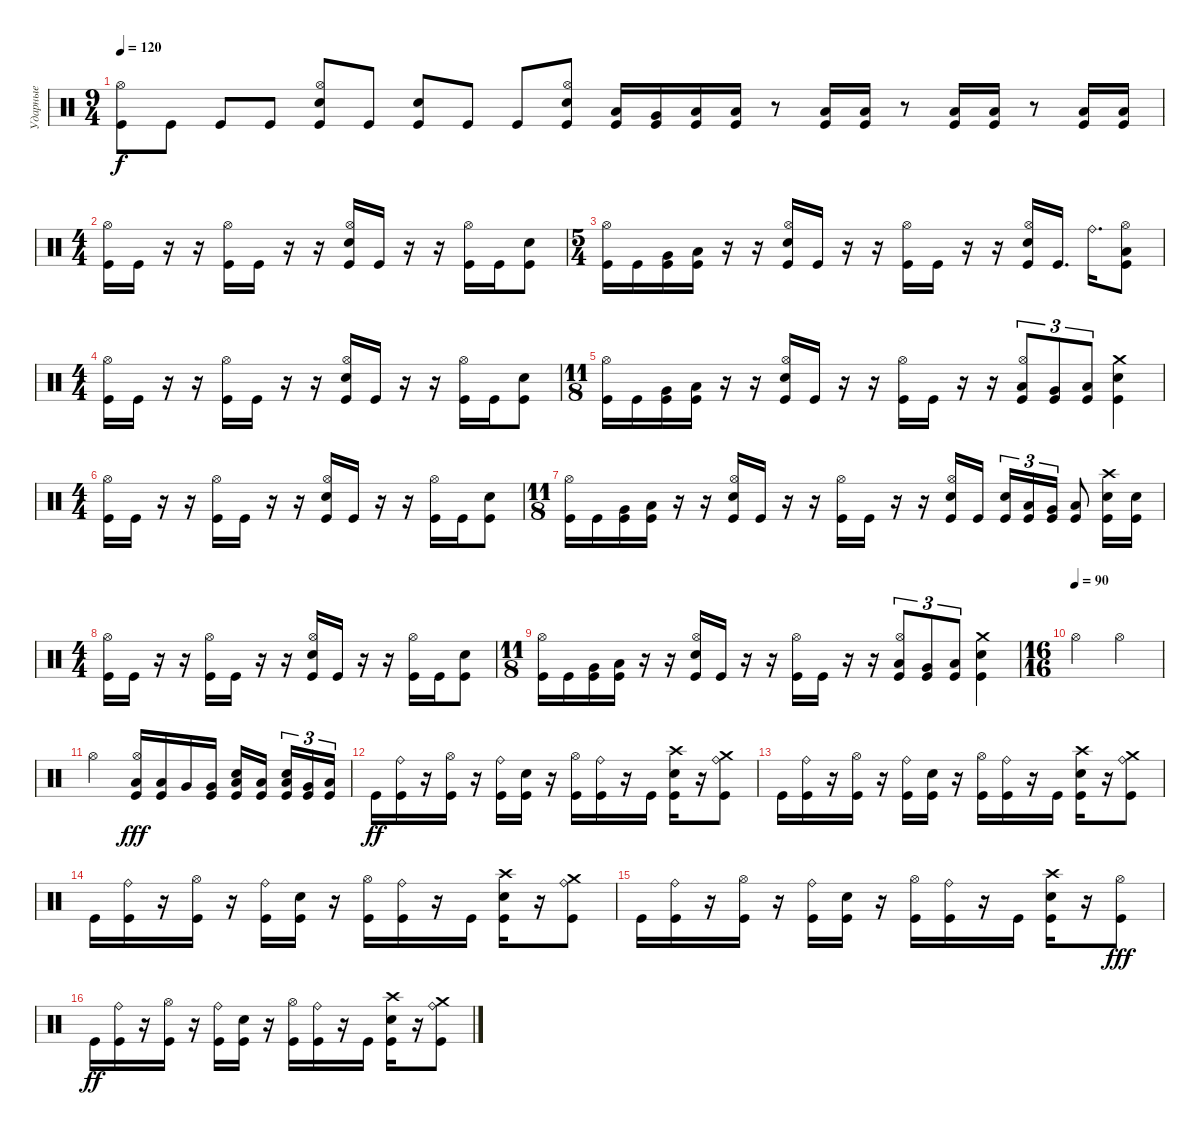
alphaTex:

\track ("Ударные" "Ударные") {instrument percussion}
\staff {score}
\articulation defaults
\ts (9 4)
\tempo 120
\clef neutral
\ks c
("Kick (hit)" "Hi-Hat (open)").8{dy f} "Kick (hit)".8 "Kick (hit)".8 "Kick (hit)".8 ("Kick (hit)" "Hi-Hat (open)" "Snare (hit) 2").8 "Kick (hit)".8 ("Kick (hit)" "Snare (hit) 2").8 "Kick (hit)".8 "Kick (hit)".8 ("Kick (hit)" "Hi-Hat (open)" "Snare (hit) 2").8 ("Kick (hit)" "Low Tom (hit)").16 ("Kick (hit)" "Very Low Tom (hit)").16 ("Kick (hit)" "Low Floor Tom (hit)").16 ("Kick (hit)" "Low Floor Tom (hit)").16 r.8 ("Kick (hit)" "Low Floor Tom (hit)").16 ("Kick (hit)" "Low Floor Tom (hit)").16 r.8 ("Kick (hit)" "Low Floor Tom (hit)").16 ("Kick (hit)" "Low Floor Tom (hit)").16 r.8 ("Kick (hit)" "Low Floor Tom (hit)").16 ("Kick (hit)" "Low Floor Tom (hit)").16 |
\ts (4 4)
("Kick (hit)" "Hi-Hat (open)").16 "Kick (hit)".16 r.16 r.16 ("Kick (hit)" "Hi-Hat (open)").16 "Kick (hit)".16 r.16 r.16 ("Kick (hit)" "Snare (hit) 2" "Hi-Hat (open)").16 "Kick (hit)".16 r.16 r.16 ("Kick (hit)" "Hi-Hat (open)").16 "Kick (hit)".16 ("Kick (hit)" "Snare (hit) 2").8 |
\ts (5 4)
("Kick (hit)" "Hi-Hat (open)").16 "Kick (hit)".16 ("Kick (hit)" "Very Low Tom (hit)").16 ("Kick (hit)" "Low Floor Tom (hit)").16 r.16 r.16 ("Kick (hit)" "Snare (hit) 2" "Hi-Hat (open)").16 "Kick (hit)".16 r.16 r.16 ("Kick (hit)" "Hi-Hat (open)").16 "Kick (hit)".16 r.16 r.16 ("Kick (hit)" "Snare (hit) 2" "Hi-Hat (open)").16 "Kick (hit)".16{d} "Ride (bell)".16{d} ("Kick (hit)" "Low Floor Tom (hit)" "Hi-Hat (open)").8 |
\ts (4 4)
("Kick (hit)" "Hi-Hat (open)").16 "Kick (hit)".16 r.16 r.16 ("Kick (hit)" "Hi-Hat (open)").16 "Kick (hit)".16 r.16 r.16 ("Kick (hit)" "Snare (hit) 2" "Hi-Hat (open)").16 "Kick (hit)".16 r.16 r.16 ("Kick (hit)" "Hi-Hat (open)").16 "Kick (hit)".16 ("Kick (hit)" "Snare (hit) 2").8 |
\ts (11 8)
("Kick (hit)" "Hi-Hat (open)").16 "Kick (hit)".16 ("Kick (hit)" "Very Low Tom (hit)").16 ("Kick (hit)" "Low Floor Tom (hit)").16 r.16 r.16 ("Kick (hit)" "Snare (hit) 2" "Hi-Hat (open)").16 "Kick (hit)".16 r.16 r.16 ("Kick (hit)" "Hi-Hat (open)").16 "Kick (hit)".16 r.16 r.16 ("Kick (hit)" "Low Tom (hit)" "Hi-Hat (open)").8{tu (3 2)} ("Kick (hit)" "Very Low Tom (hit)").8{tu (3 2)} ("Kick (hit)" "Low Floor Tom (hit)").8{tu (3 2)} ("Kick (hit)" "Crash medium (hit)" "Snare (hit) 2").4 |
\ts (4 4)
("Kick (hit)" "Hi-Hat (open)").16 "Kick (hit)".16 r.16 r.16 ("Kick (hit)" "Hi-Hat (open)").16 "Kick (hit)".16 r.16 r.16 ("Kick (hit)" "Snare (hit) 2" "Hi-Hat (open)").16 "Kick (hit)".16 r.16 r.16 ("Kick (hit)" "Hi-Hat (open)").16 "Kick (hit)".16 ("Kick (hit)" "Snare (hit) 2").8 |
\ts (11 8)
("Kick (hit)" "Hi-Hat (open)").16 "Kick (hit)".16 ("Kick (hit)" "Very Low Tom (hit)").16 ("Kick (hit)" "Low Floor Tom (hit)").16 r.16 r.16 ("Kick (hit)" "Snare (hit) 2" "Hi-Hat (open)").16 "Kick (hit)".16 r.16 r.16 ("Kick (hit)" "Hi-Hat (open)").16 "Kick (hit)".16 r.16 r.16 ("Kick (hit)" "Snare (hit) 2" "Hi-Hat (open)").16 "Kick (hit)".16 ("Kick (hit)" "Snare (hit) 2").16{tu (3 2)} ("Kick (hit)" "Low Tom (hit)").16{tu (3 2)} ("Kick (hit)" "Very Low Tom (hit)").16{tu (3 2)} ("Kick (hit)" "Low Floor Tom (hit)").8 ("Kick (hit)" "Crash high (hit)" "Snare (hit) 2").16 ("Kick (hit)" "Snare (hit) 2").16 |
\ts (4 4)
("Kick (hit)" "Hi-Hat (open)").16 "Kick (hit)".16 r.16 r.16 ("Kick (hit)" "Hi-Hat (open)").16 "Kick (hit)".16 r.16 r.16 ("Kick (hit)" "Snare (hit) 2" "Hi-Hat (open)").16 "Kick (hit)".16 r.16 r.16 ("Kick (hit)" "Hi-Hat (open)").16 "Kick (hit)".16 ("Kick (hit)" "Snare (hit) 2").8 |
\ts (11 8)
("Kick (hit)" "Hi-Hat (open)").16 "Kick (hit)".16 ("Kick (hit)" "Very Low Tom (hit)").16 ("Kick (hit)" "Low Floor Tom (hit)").16 r.16 r.16 ("Kick (hit)" "Snare (hit) 2" "Hi-Hat (open)").16 "Kick (hit)".16 r.16 r.16 ("Kick (hit)" "Hi-Hat (open)").16 "Kick (hit)".16 r.16 r.16 ("Kick (hit)" "Low Tom (hit)" "Hi-Hat (open)").8{tu (3 2)} ("Kick (hit)" "Very Low Tom (hit)").8{tu (3 2)} ("Kick (hit)" "Low Floor Tom (hit)").8{tu (3 2)} ("Kick (hit)" "Crash medium (hit)" "Snare (hit) 2").4 |
\ts (16 16)
\tempo (90)
"Hi-Hat (open)".2 "Hi-Hat (open)".2 |
"Hi-Hat (open)".2 ("Hi-Hat (open)" "Low Tom (hit)" "Kick (hit)").16{dy fff} ("Low Tom (hit)" "Kick (hit)").16 "Very Low Tom (hit)".16 ("Very Low Tom (hit)" "Kick (hit)").16 ("Low Floor Tom (hit)" "Snare (hit) 2" "Kick (hit)").16 ("Low Floor Tom (hit)" "Kick (hit)").16 ("Low Tom (hit)" "Snare (hit) 2" "Kick (hit)").16{tu (3 2)} ("Very Low Tom (hit)" "Kick (hit)").16{tu (3 2)} ("Low Floor Tom (hit)" "Kick (hit)").16{tu (3 2)} |
"Kick (hit)".16{dy ff} ("Ride (bell)" "Kick (hit)").16 r.16 ("Hi-Hat (open)" "Kick (hit)").16 r.16 ("Ride (bell)" "Kick (hit)").16 ("Snare (hit) 2" "Kick (hit)").16 r.16 ("Hi-Hat (open)" "Kick (hit)").16 ("Ride (bell)" "Kick (hit)").16 r.16 "Kick (hit)".16 ("Crash high (hit)" "Snare (hit) 2" "Kick (hit)").16 r.16 ("Crash medium (hit)" "Ride (bell)" "Kick (hit)").8 |
"Kick (hit)".16 ("Ride (bell)" "Kick (hit)").16 r.16 ("Hi-Hat (open)" "Kick (hit)").16 r.16 ("Ride (bell)" "Kick (hit)").16 ("Snare (hit) 2" "Kick (hit)").16 r.16 ("Hi-Hat (open)" "Kick (hit)").16 ("Ride (bell)" "Kick (hit)").16 r.16 "Kick (hit)".16 ("Crash high (hit)" "Snare (hit) 2" "Kick (hit)").16 r.16 ("Crash medium (hit)" "Ride (bell)" "Kick (hit)").8 |
"Kick (hit)".16 ("Ride (bell)" "Kick (hit)").16 r.16 ("Hi-Hat (open)" "Kick (hit)").16 r.16 ("Ride (bell)" "Kick (hit)").16 ("Snare (hit) 2" "Kick (hit)").16 r.16 ("Hi-Hat (open)" "Kick (hit)").16 ("Ride (bell)" "Kick (hit)").16 r.16 "Kick (hit)".16 ("Crash high (hit)" "Snare (hit) 2" "Kick (hit)").16 r.16 ("Crash medium (hit)" "Ride (bell)" "Kick (hit)").8 |
"Kick (hit)".16 ("Ride (bell)" "Kick (hit)").16 r.16 ("Hi-Hat (open)" "Kick (hit)").16 r.16 ("Ride (bell)" "Kick (hit)").16 ("Snare (hit) 2" "Kick (hit)").16 r.16 ("Hi-Hat (open)" "Kick (hit)").16 ("Ride (bell)" "Kick (hit)").16 r.16 "Kick (hit)".16 ("Crash high (hit)" "Snare (hit) 2" "Kick (hit)").16 r.16 ("Kick (hit)" "Hi-Hat (open)").8{dy fff} |
"Kick (hit)".16{dy ff} ("Ride (bell)" "Kick (hit)").16 r.16 ("Hi-Hat (open)" "Kick (hit)").16 r.16 ("Ride (bell)" "Kick (hit)").16 ("Snare (hit) 2" "Kick (hit)").16 r.16 ("Hi-Hat (open)" "Kick (hit)").16 ("Ride (bell)" "Kick (hit)").16 r.16 "Kick (hit)".16 ("Crash high (hit)" "Snare (hit) 2" "Kick (hit)").16 r.16 ("Crash medium (hit)" "Ride (bell)" "Kick (hit)").8
